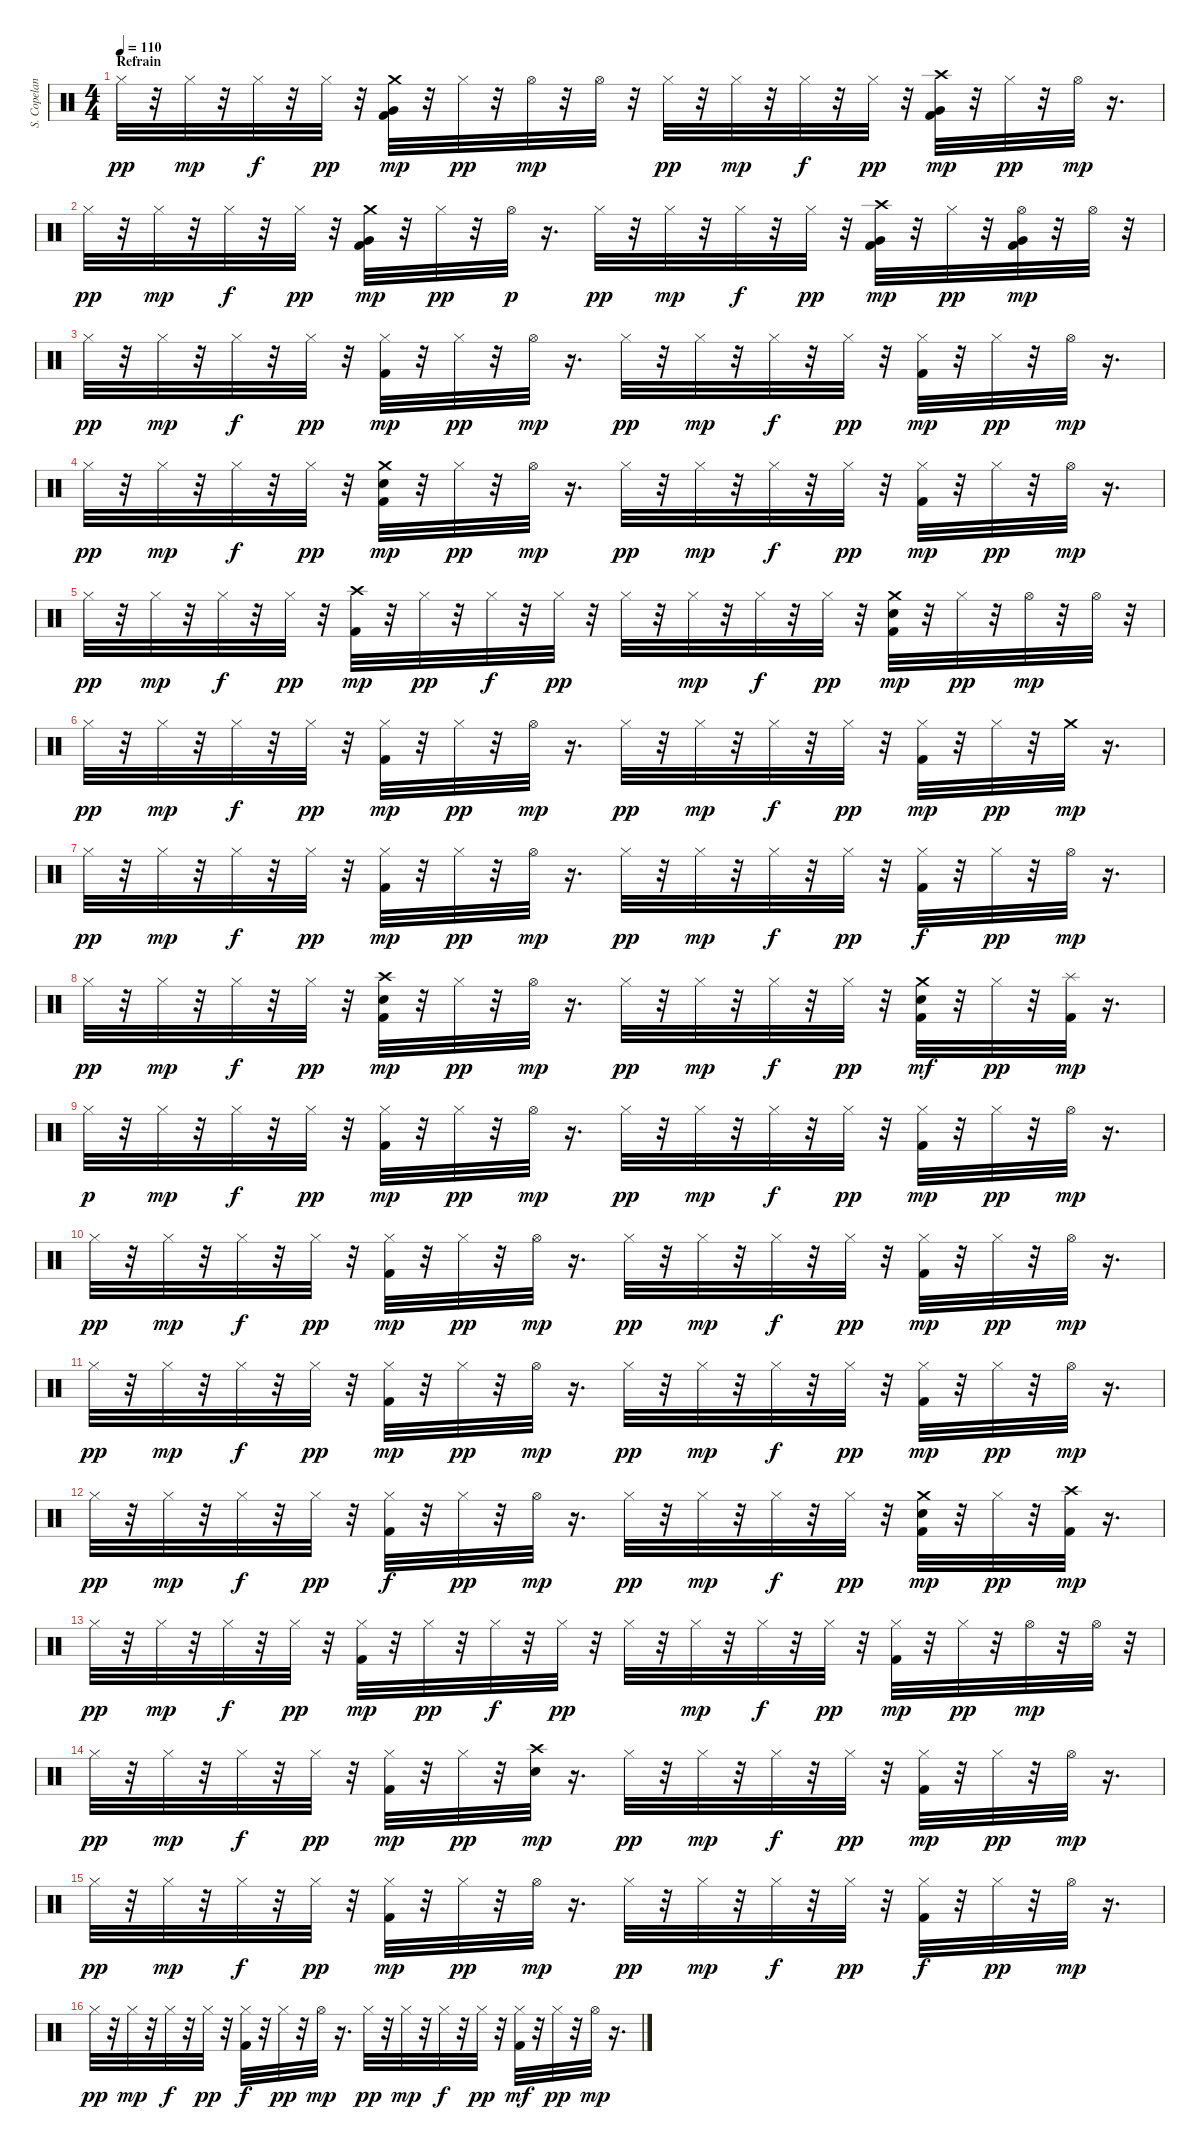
\track ("S. Copeland" "S. Copelan") {instrument percussion}
\staff {score}
\articulation defaults
\ts (4 4)
\section ("" "Refrain")
\tempo 110
\clef neutral
\ks c "Hi-Hat (closed)".32{dy pp}
r.32 "Hi-Hat (closed)".32{dy mp} r.32 "Hi-Hat (closed)".32{dy f} r.32 "Hi-Hat (closed)".32{dy pp} r.32 ("Kick (hit) 2" "Very Low Tom (hit)" "Crash medium (hit)").32{dy mp} r.32 "Hi-Hat (closed)".32{dy pp} r.32 "Hi-Hat (open)".32{dy mp} r.32 "Hi-Hat (open)".32 r.32 "Hi-Hat (closed)".32{dy pp} r.32 "Hi-Hat (closed)".32{dy mp} r.32 "Hi-Hat (closed)".32{dy f} r.32 "Hi-Hat (closed)".32{dy pp} r.32 ("Kick (hit) 2" "Very Low Tom (hit)" "Crash high (hit)").32{dy mp} r.32 "Hi-Hat (closed)".32{dy pp} r.32 "Hi-Hat (open)".32{dy mp} r.16{d} |
"Hi-Hat (closed)".32{dy pp} r.32 "Hi-Hat (closed)".32{dy mp} r.32 "Hi-Hat (closed)".32{dy f} r.32 "Hi-Hat (closed)".32{dy pp} r.32 ("Kick (hit) 2" "Very Low Tom (hit)" "Crash medium (hit)").32{dy mp} r.32 "Hi-Hat (closed)".32{dy pp} r.32 "Hi-Hat (open)".32{dy p} r.16{d} "Hi-Hat (closed)".32{dy pp} r.32 "Hi-Hat (closed)".32{dy mp} r.32 "Hi-Hat (closed)".32{dy f} r.32 "Hi-Hat (closed)".32{dy pp} r.32 ("Kick (hit) 2" "Very Low Tom (hit)" "Crash high (hit)").32{dy mp} r.32 "Hi-Hat (closed)".32{dy pp} r.32 ("Kick (hit) 2" "Very Low Tom (hit)" "Hi-Hat (open)").32{dy mp} r.32 "Hi-Hat (open)".32 r.32 |
"Hi-Hat (closed)".32{dy pp} r.32 "Hi-Hat (closed)".32{dy mp} r.32 "Hi-Hat (closed)".32{dy f} r.32 "Hi-Hat (closed)".32{dy pp} r.32 ("Kick (hit) 2" "Hi-Hat (closed)").32{dy mp} r.32 "Hi-Hat (closed)".32{dy pp} r.32 "Hi-Hat (open)".32{dy mp} r.16{d} "Hi-Hat (closed)".32{dy pp} r.32 "Hi-Hat (closed)".32{dy mp} r.32 "Hi-Hat (closed)".32{dy f} r.32 "Hi-Hat (closed)".32{dy pp} r.32 ("Kick (hit) 2" "Hi-Hat (closed)").32{dy mp} r.32 "Hi-Hat (closed)".32{dy pp} r.32 "Hi-Hat (open)".32{dy mp} r.16{d} |
"Hi-Hat (closed)".32{dy pp} r.32 "Hi-Hat (closed)".32{dy mp} r.32 "Hi-Hat (closed)".32{dy f} r.32 "Hi-Hat (closed)".32{dy pp} r.32 ("Kick (hit) 2" "Electric Snare (hit)" "Crash medium (hit)").32{dy mp} r.32 "Hi-Hat (closed)".32{dy pp} r.32 "Hi-Hat (open)".32{dy mp} r.16{d} "Hi-Hat (closed)".32{dy pp} r.32 "Hi-Hat (closed)".32{dy mp} r.32 "Hi-Hat (closed)".32{dy f} r.32 "Hi-Hat (closed)".32{dy pp} r.32 ("Kick (hit) 2" "Hi-Hat (closed)").32{dy mp} r.32 "Hi-Hat (closed)".32{dy pp} r.32 "Hi-Hat (open)".32{dy mp} r.16{d} |
"Hi-Hat (closed)".32{dy pp} r.32 "Hi-Hat (closed)".32{dy mp} r.32 "Hi-Hat (closed)".32{dy f} r.32 "Hi-Hat (closed)".32{dy pp} r.32 ("Kick (hit) 2" "Crash high (hit)").32{dy mp} r.32 "Hi-Hat (closed)".32{dy pp} r.32 "Hi-Hat (closed)".32{dy f} r.32 "Hi-Hat (closed)".32{dy pp} r.32 "Hi-Hat (closed)".32 r.32 "Hi-Hat (closed)".32{dy mp} r.32 "Hi-Hat (closed)".32{dy f} r.32 "Hi-Hat (closed)".32{dy pp} r.32 ("Kick (hit) 2" "Electric Snare (hit)" "Crash medium (hit)").32{dy mp} r.32 "Hi-Hat (closed)".32{dy pp} r.32 "Hi-Hat (open)".32{dy mp} r.32 "Hi-Hat (open)".32 r.32 |
"Hi-Hat (closed)".32{dy pp} r.32 "Hi-Hat (closed)".32{dy mp} r.32 "Hi-Hat (closed)".32{dy f} r.32 "Hi-Hat (closed)".32{dy pp} r.32 ("Kick (hit) 2" "Hi-Hat (closed)").32{dy mp} r.32 "Hi-Hat (closed)".32{dy pp} r.32 "Hi-Hat (open)".32{dy mp} r.16{d} "Hi-Hat (closed)".32{dy pp} r.32 "Hi-Hat (closed)".32{dy mp} r.32 "Hi-Hat (closed)".32{dy f} r.32 "Hi-Hat (closed)".32{dy pp} r.32 ("Kick (hit) 2" "Hi-Hat (closed)").32{dy mp} r.32 "Hi-Hat (closed)".32{dy pp} r.32 "Crash medium (hit)".32{dy mp} r.16{d} |
"Hi-Hat (closed)".32{dy pp} r.32 "Hi-Hat (closed)".32{dy mp} r.32 "Hi-Hat (closed)".32{dy f} r.32 "Hi-Hat (closed)".32{dy pp} r.32 ("Kick (hit) 2" "Hi-Hat (closed)").32{dy mp} r.32 "Hi-Hat (closed)".32{dy pp} r.32 "Hi-Hat (open)".32{dy mp} r.16{d} "Hi-Hat (closed)".32{dy pp} r.32 "Hi-Hat (closed)".32{dy mp} r.32 "Hi-Hat (closed)".32{dy f} r.32 "Hi-Hat (closed)".32{dy pp} r.32 ("Kick (hit) 2" "Hi-Hat (closed)").32{dy f} r.32 "Hi-Hat (closed)".32{dy pp} r.32 "Hi-Hat (open)".32{dy mp} r.16{d} |
"Hi-Hat (closed)".32{dy pp} r.32 "Hi-Hat (closed)".32{dy mp} r.32 "Hi-Hat (closed)".32{dy f} r.32 "Hi-Hat (closed)".32{dy pp} r.32 ("Kick (hit) 2" "Electric Snare (hit)" "Crash high (hit)").32{dy mp} r.32 "Hi-Hat (closed)".32{dy pp} r.32 "Hi-Hat (open)".32{dy mp} r.16{d} "Hi-Hat (closed)".32{dy pp} r.32 "Hi-Hat (closed)".32{dy mp} r.32 "Hi-Hat (closed)".32{dy f} r.32 "Hi-Hat (closed)".32{dy pp} r.32 ("Kick (hit) 2" "Electric Snare (hit)" "Crash medium (hit)").32{dy mf} r.32 "Hi-Hat (closed)".32{dy pp} r.32 ("Kick (hit) 2" "Splash (hit)").32{dy mp} r.16{d} |
"Hi-Hat (closed)".32{dy p} r.32 "Hi-Hat (closed)".32{dy mp} r.32 "Hi-Hat (closed)".32{dy f} r.32 "Hi-Hat (closed)".32{dy pp} r.32 ("Kick (hit) 2" "Hi-Hat (closed)").32{dy mp} r.32 "Hi-Hat (closed)".32{dy pp} r.32 "Hi-Hat (open)".32{dy mp} r.16{d} "Hi-Hat (closed)".32{dy pp} r.32 "Hi-Hat (closed)".32{dy mp} r.32 "Hi-Hat (closed)".32{dy f} r.32 "Hi-Hat (closed)".32{dy pp} r.32 ("Kick (hit) 2" "Hi-Hat (closed)").32{dy mp} r.32 "Hi-Hat (closed)".32{dy pp} r.32 "Hi-Hat (open)".32{dy mp} r.16{d} |
"Hi-Hat (closed)".32{dy pp} r.32 "Hi-Hat (closed)".32{dy mp} r.32 "Hi-Hat (closed)".32{dy f} r.32 "Hi-Hat (closed)".32{dy pp} r.32 ("Kick (hit) 2" "Hi-Hat (closed)").32{dy mp} r.32 "Hi-Hat (closed)".32{dy pp} r.32 "Hi-Hat (open)".32{dy mp} r.16{d} "Hi-Hat (closed)".32{dy pp} r.32 "Hi-Hat (closed)".32{dy mp} r.32 "Hi-Hat (closed)".32{dy f} r.32 "Hi-Hat (closed)".32{dy pp} r.32 ("Kick (hit) 2" "Hi-Hat (closed)").32{dy mp} r.32 "Hi-Hat (closed)".32{dy pp} r.32 "Hi-Hat (open)".32{dy mp} r.16{d} |
"Hi-Hat (closed)".32{dy pp} r.32 "Hi-Hat (closed)".32{dy mp} r.32 "Hi-Hat (closed)".32{dy f} r.32 "Hi-Hat (closed)".32{dy pp} r.32 ("Kick (hit) 2" "Hi-Hat (closed)").32{dy mp} r.32 "Hi-Hat (closed)".32{dy pp} r.32 "Hi-Hat (open)".32{dy mp} r.16{d} "Hi-Hat (closed)".32{dy pp} r.32 "Hi-Hat (closed)".32{dy mp} r.32 "Hi-Hat (closed)".32{dy f} r.32 "Hi-Hat (closed)".32{dy pp} r.32 ("Kick (hit) 2" "Hi-Hat (closed)").32{dy mp} r.32 "Hi-Hat (closed)".32{dy pp} r.32 "Hi-Hat (open)".32{dy mp} r.16{d} |
"Hi-Hat (closed)".32{dy pp} r.32 "Hi-Hat (closed)".32{dy mp} r.32 "Hi-Hat (closed)".32{dy f} r.32 "Hi-Hat (closed)".32{dy pp} r.32 ("Kick (hit) 2" "Hi-Hat (closed)").32{dy f} r.32 "Hi-Hat (closed)".32{dy pp} r.32 "Hi-Hat (open)".32{dy mp} r.16{d} "Hi-Hat (closed)".32{dy pp} r.32 "Hi-Hat (closed)".32{dy mp} r.32 "Hi-Hat (closed)".32{dy f} r.32 "Hi-Hat (closed)".32{dy pp} r.32 ("Kick (hit) 2" "Electric Snare (hit)" "Crash medium (hit)").32{dy mp} r.32 "Hi-Hat (closed)".32{dy pp} r.32 ("Kick (hit) 2" "Crash high (hit)").32{dy mp} r.16{d} |
"Hi-Hat (closed)".32{dy pp} r.32 "Hi-Hat (closed)".32{dy mp} r.32 "Hi-Hat (closed)".32{dy f} r.32 "Hi-Hat (closed)".32{dy pp} r.32 ("Kick (hit) 2" "Hi-Hat (closed)").32{dy mp} r.32 "Hi-Hat (closed)".32{dy pp} r.32 "Hi-Hat (closed)".32{dy f} r.32 "Hi-Hat (closed)".32{dy pp} r.32 "Hi-Hat (closed)".32 r.32 "Hi-Hat (closed)".32{dy mp} r.32 "Hi-Hat (closed)".32{dy f} r.32 "Hi-Hat (closed)".32{dy pp} r.32 ("Kick (hit) 2" "Hi-Hat (closed)").32{dy mp} r.32 "Hi-Hat (closed)".32{dy pp} r.32 "Hi-Hat (open)".32{dy mp} r.32 "Hi-Hat (open)".32 r.32 |
"Hi-Hat (closed)".32{dy pp} r.32 "Hi-Hat (closed)".32{dy mp} r.32 "Hi-Hat (closed)".32{dy f} r.32 "Hi-Hat (closed)".32{dy pp} r.32 ("Kick (hit) 2" "Hi-Hat (closed)").32{dy mp} r.32 "Hi-Hat (closed)".32{dy pp} r.32 ("Electric Snare (hit)" "Crash high (hit)").32{dy mp} r.16{d} "Hi-Hat (closed)".32{dy pp} r.32 "Hi-Hat (closed)".32{dy mp} r.32 "Hi-Hat (closed)".32{dy f} r.32 "Hi-Hat (closed)".32{dy pp} r.32 ("Kick (hit) 2" "Hi-Hat (closed)").32{dy mp} r.32 "Hi-Hat (closed)".32{dy pp} r.32 "Hi-Hat (open)".32{dy mp} r.16{d} |
"Hi-Hat (closed)".32{dy pp} r.32 "Hi-Hat (closed)".32{dy mp} r.32 "Hi-Hat (closed)".32{dy f} r.32 "Hi-Hat (closed)".32{dy pp} r.32 ("Kick (hit) 2" "Hi-Hat (closed)").32{dy mp} r.32 "Hi-Hat (closed)".32{dy pp} r.32 "Hi-Hat (open)".32{dy mp} r.16{d} "Hi-Hat (closed)".32{dy pp} r.32 "Hi-Hat (closed)".32{dy mp} r.32 "Hi-Hat (closed)".32{dy f} r.32 "Hi-Hat (closed)".32{dy pp} r.32 ("Kick (hit) 2" "Hi-Hat (closed)").32{dy f} r.32 "Hi-Hat (closed)".32{dy pp} r.32 "Hi-Hat (open)".32{dy mp} r.16{d} |
"Hi-Hat (closed)".32{dy pp} r.32 "Hi-Hat (closed)".32{dy mp} r.32 "Hi-Hat (closed)".32{dy f} r.32 "Hi-Hat (closed)".32{dy pp} r.32 ("Kick (hit) 2" "Hi-Hat (closed)").32{dy f} r.32 "Hi-Hat (closed)".32{dy pp} r.32 "Hi-Hat (open)".32{dy mp} r.16{d} "Hi-Hat (closed)".32{dy pp} r.32 "Hi-Hat (closed)".32{dy mp} r.32 "Hi-Hat (closed)".32{dy f} r.32 "Hi-Hat (closed)".32{dy pp} r.32 ("Kick (hit) 2" "Hi-Hat (closed)").32{dy mf} r.32 "Hi-Hat (closed)".32{dy pp} r.32 "Hi-Hat (open)".32{dy mp} r.16{d}
